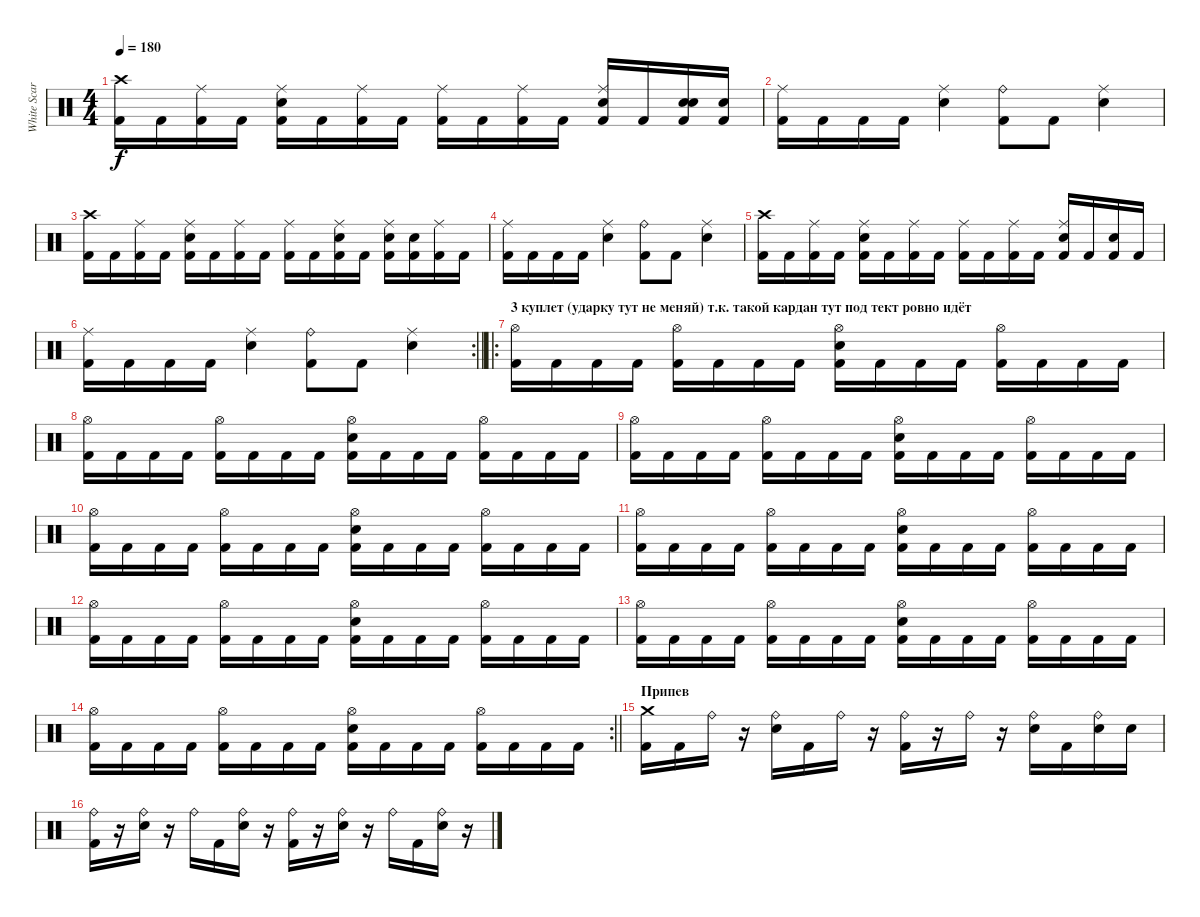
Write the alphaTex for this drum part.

\track ("White Scar" "White Scar") {instrument percussion}
\staff {score}
\articulation defaults
\ts (4 4)
\tempo 180
\clef neutral
\ks c
("Crash high (hit)" "Kick (hit) 2").16{dy f} "Kick (hit) 2".16 ("Ride (middle)" "Kick (hit) 2").16 "Kick (hit) 2".16 ("Ride (middle)" "Snare (hit) 2" "Kick (hit) 2").16 "Kick (hit) 2".16 ("Ride (middle)" "Kick (hit) 2").16 "Kick (hit) 2".16 ("Ride (middle)" "Kick (hit) 2").16 "Kick (hit) 2".16 ("Ride (middle)" "Kick (hit) 2").16 "Kick (hit) 2".16 ("Ride (middle)" "Snare (hit) 2" "Kick (hit) 2").16 "Kick (hit) 2".16 ("Snare (hit)" "Snare (hit) 2" "Kick (hit) 2").16 ("Snare (hit) 2" "Kick (hit) 2").16 |
("Ride (middle)" "Kick (hit) 2").16 "Kick (hit) 2".16 "Kick (hit) 2".16 "Kick (hit) 2".16 ("Ride (middle)" "Snare (hit) 2").4 ("Ride (bell)" "Kick (hit) 2").8 "Kick (hit) 2".8 ("Ride (middle)" "Snare (hit) 2").4 |
("Crash high (hit)" "Kick (hit) 2").16 "Kick (hit) 2".16 ("Ride (middle)" "Kick (hit) 2").16 "Kick (hit) 2".16 ("Ride (middle)" "Snare (hit) 2" "Kick (hit) 2").16 "Kick (hit) 2".16 ("Ride (middle)" "Kick (hit) 2").16 "Kick (hit) 2".16 ("Ride (middle)" "Kick (hit) 2").16 "Kick (hit) 2".16 ("Ride (middle)" "Snare (hit) 2" "Kick (hit) 2").16 "Kick (hit) 2".16 ("Ride (middle)" "Snare (hit) 2" "Kick (hit) 2").16 ("Snare (hit) 2" "Kick (hit) 2").16 ("Ride (middle)" "Kick (hit) 2").16 "Kick (hit) 2".16 |
("Ride (middle)" "Kick (hit) 2").16 "Kick (hit) 2".16 "Kick (hit) 2".16 "Kick (hit) 2".16 ("Ride (middle)" "Snare (hit) 2").4 ("Ride (bell)" "Kick (hit) 2").8 "Kick (hit) 2".8 ("Ride (middle)" "Snare (hit) 2").4 |
("Crash high (hit)" "Kick (hit) 2").16 "Kick (hit) 2".16 ("Ride (middle)" "Kick (hit) 2").16 "Kick (hit) 2".16 ("Ride (middle)" "Snare (hit) 2" "Kick (hit) 2").16 "Kick (hit) 2".16 ("Ride (middle)" "Kick (hit) 2").16 "Kick (hit) 2".16 ("Ride (middle)" "Kick (hit) 2").16 "Kick (hit) 2".16 ("Ride (middle)" "Kick (hit) 2").16 "Kick (hit) 2".16 ("Ride (middle)" "Snare (hit) 2" "Kick (hit) 2").16 "Kick (hit) 2".16 ("Snare (hit)" "Kick (hit) 2").16 "Kick (hit) 2".16 |
\rc 2
\barLineRight lightlight
("Ride (middle)" "Kick (hit) 2").16 "Kick (hit) 2".16 "Kick (hit) 2".16 "Kick (hit) 2".16 ("Ride (middle)" "Snare (hit) 2").4 ("Ride (bell)" "Kick (hit) 2").8 "Kick (hit) 2".8 ("Ride (middle)" "Snare (hit) 2").4 |
\ro
\section ("" "3 куплет (ударку тут не меняй) т.к. такой кардан тут под тект ровно идёт")
("Kick (hit) 2" "Hi-Hat (open)").16 "Kick (hit) 2".16 "Kick (hit) 2".16 "Kick (hit) 2".16 ("Kick (hit) 2" "Hi-Hat (open)").16 "Kick (hit) 2".16 "Kick (hit) 2".16 "Kick (hit) 2".16 ("Kick (hit) 2" "Snare (hit) 2" "Hi-Hat (open)").16 "Kick (hit) 2".16 "Kick (hit) 2".16 "Kick (hit) 2".16 ("Kick (hit) 2" "Hi-Hat (open)").16 "Kick (hit) 2".16 "Kick (hit) 2".16 "Kick (hit) 2".16 |
("Kick (hit) 2" "Hi-Hat (open)").16 "Kick (hit) 2".16 "Kick (hit) 2".16 "Kick (hit) 2".16 ("Kick (hit) 2" "Hi-Hat (open)").16 "Kick (hit) 2".16 "Kick (hit) 2".16 "Kick (hit) 2".16 ("Kick (hit) 2" "Snare (hit) 2" "Hi-Hat (open)").16 "Kick (hit) 2".16 "Kick (hit) 2".16 "Kick (hit) 2".16 ("Kick (hit) 2" "Hi-Hat (open)").16 "Kick (hit) 2".16 "Kick (hit) 2".16 "Kick (hit) 2".16 |
("Kick (hit) 2" "Hi-Hat (open)").16 "Kick (hit) 2".16 "Kick (hit) 2".16 "Kick (hit) 2".16 ("Kick (hit) 2" "Hi-Hat (open)").16 "Kick (hit) 2".16 "Kick (hit) 2".16 "Kick (hit) 2".16 ("Kick (hit) 2" "Snare (hit) 2" "Hi-Hat (open)").16 "Kick (hit) 2".16 "Kick (hit) 2".16 "Kick (hit) 2".16 ("Kick (hit) 2" "Hi-Hat (open)").16 "Kick (hit) 2".16 "Kick (hit) 2".16 "Kick (hit) 2".16 |
("Kick (hit) 2" "Hi-Hat (open)").16 "Kick (hit) 2".16 "Kick (hit) 2".16 "Kick (hit) 2".16 ("Kick (hit) 2" "Hi-Hat (open)").16 "Kick (hit) 2".16 "Kick (hit) 2".16 "Kick (hit) 2".16 ("Kick (hit) 2" "Snare (hit) 2" "Hi-Hat (open)").16 "Kick (hit) 2".16 "Kick (hit) 2".16 "Kick (hit) 2".16 ("Kick (hit) 2" "Hi-Hat (open)").16 "Kick (hit) 2".16 "Kick (hit) 2".16 "Kick (hit) 2".16 |
("Kick (hit) 2" "Hi-Hat (open)").16 "Kick (hit) 2".16 "Kick (hit) 2".16 "Kick (hit) 2".16 ("Kick (hit) 2" "Hi-Hat (open)").16 "Kick (hit) 2".16 "Kick (hit) 2".16 "Kick (hit) 2".16 ("Kick (hit) 2" "Snare (hit) 2" "Hi-Hat (open)").16 "Kick (hit) 2".16 "Kick (hit) 2".16 "Kick (hit) 2".16 ("Kick (hit) 2" "Hi-Hat (open)").16 "Kick (hit) 2".16 "Kick (hit) 2".16 "Kick (hit) 2".16 |
("Kick (hit) 2" "Hi-Hat (open)").16 "Kick (hit) 2".16 "Kick (hit) 2".16 "Kick (hit) 2".16 ("Kick (hit) 2" "Hi-Hat (open)").16 "Kick (hit) 2".16 "Kick (hit) 2".16 "Kick (hit) 2".16 ("Kick (hit) 2" "Snare (hit) 2" "Hi-Hat (open)").16 "Kick (hit) 2".16 "Kick (hit) 2".16 "Kick (hit) 2".16 ("Kick (hit) 2" "Hi-Hat (open)").16 "Kick (hit) 2".16 "Kick (hit) 2".16 "Kick (hit) 2".16 |
("Kick (hit) 2" "Hi-Hat (open)").16 "Kick (hit) 2".16 "Kick (hit) 2".16 "Kick (hit) 2".16 ("Kick (hit) 2" "Hi-Hat (open)").16 "Kick (hit) 2".16 "Kick (hit) 2".16 "Kick (hit) 2".16 ("Kick (hit) 2" "Snare (hit) 2" "Hi-Hat (open)").16 "Kick (hit) 2".16 "Kick (hit) 2".16 "Kick (hit) 2".16 ("Kick (hit) 2" "Hi-Hat (open)").16 "Kick (hit) 2".16 "Kick (hit) 2".16 "Kick (hit) 2".16 |
\rc 2
\barLineRight lightlight
("Kick (hit) 2" "Hi-Hat (open)").16 "Kick (hit) 2".16 "Kick (hit) 2".16 "Kick (hit) 2".16 ("Kick (hit) 2" "Hi-Hat (open)").16 "Kick (hit) 2".16 "Kick (hit) 2".16 "Kick (hit) 2".16 ("Kick (hit) 2" "Snare (hit) 2" "Hi-Hat (open)").16 "Kick (hit) 2".16 "Kick (hit) 2".16 "Kick (hit) 2".16 ("Kick (hit) 2" "Hi-Hat (open)").16 "Kick (hit) 2".16 "Kick (hit) 2".16 "Kick (hit) 2".16 |
\section ("" "Припев")
("Crash medium (hit)" "Kick (hit) 2").16 "Kick (hit) 2".16 "Ride (bell)".16 r.16 ("Ride (bell)" "Snare (hit) 2").16 "Kick (hit) 2".16 "Ride (bell)".16 r.16 ("Ride (bell)" "Kick (hit) 2").16 r.16 "Ride (bell)".16 r.16 ("Ride (bell)" "Snare (hit) 2").16 "Kick (hit) 2".16 ("Ride (bell)" "Snare (hit) 2").16 "Snare (hit) 2".16 |
("Ride (bell)" "Kick (hit) 2").16 r.16 ("Ride (bell)" "Snare (hit) 2").16 r.16 "Ride (bell)".16 "Kick (hit) 2".16 ("Ride (bell)" "Snare (hit) 2").16 r.16 ("Ride (bell)" "Kick (hit) 2").16 r.16 ("Ride (bell)" "Snare (hit) 2").16 r.16 "Ride (bell)".16 "Kick (hit) 2".16 ("Ride (bell)" "Snare (hit) 2").16 r.16
